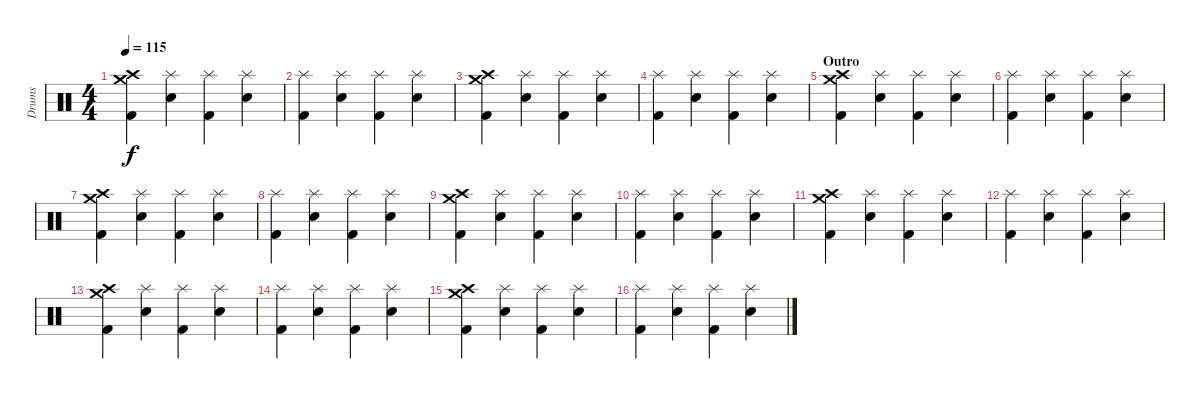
\track ("Drums" "Drums") {instrument percussion}
\staff {score}
\articulation defaults
\ts (4 4)
\tempo 115
\clef neutral
\ks c
("Crash high (hit)" "Crash medium (hit)" "Kick (hit) 2").4{dy f} ("Splash (hit)" "Snare (hit) 2").4 ("Splash (hit)" "Kick (hit) 2").4 ("Splash (hit)" "Snare (hit) 2").4 |
("Splash (hit)" "Kick (hit) 2").4 ("Splash (hit)" "Snare (hit) 2").4 ("Splash (hit)" "Kick (hit) 2").4 ("Splash (hit)" "Snare (hit) 2").4 |
("Crash high (hit)" "Crash medium (hit)" "Kick (hit) 2").4 ("Splash (hit)" "Snare (hit) 2").4 ("Splash (hit)" "Kick (hit) 2").4 ("Splash (hit)" "Snare (hit) 2").4 |
("Splash (hit)" "Kick (hit) 2").4 ("Splash (hit)" "Snare (hit) 2").4 ("Splash (hit)" "Kick (hit) 2").4 ("Splash (hit)" "Snare (hit) 2").4 |
\section ("" "Outro")
("Crash high (hit)" "Crash medium (hit)" "Kick (hit) 2").4 ("Splash (hit)" "Snare (hit) 2").4 ("Splash (hit)" "Kick (hit) 2").4 ("Splash (hit)" "Snare (hit) 2").4 |
("Splash (hit)" "Kick (hit) 2").4 ("Splash (hit)" "Snare (hit) 2").4 ("Splash (hit)" "Kick (hit) 2").4 ("Splash (hit)" "Snare (hit) 2").4 |
("Crash high (hit)" "Crash medium (hit)" "Kick (hit) 2").4 ("Splash (hit)" "Snare (hit) 2").4 ("Splash (hit)" "Kick (hit) 2").4 ("Splash (hit)" "Snare (hit) 2").4 |
("Splash (hit)" "Kick (hit) 2").4 ("Splash (hit)" "Snare (hit) 2").4 ("Splash (hit)" "Kick (hit) 2").4 ("Splash (hit)" "Snare (hit) 2").4 |
("Crash high (hit)" "Crash medium (hit)" "Kick (hit) 2").4 ("Splash (hit)" "Snare (hit) 2").4 ("Splash (hit)" "Kick (hit) 2").4 ("Splash (hit)" "Snare (hit) 2").4 |
("Splash (hit)" "Kick (hit) 2").4 ("Splash (hit)" "Snare (hit) 2").4 ("Splash (hit)" "Kick (hit) 2").4 ("Splash (hit)" "Snare (hit) 2").4 |
("Crash high (hit)" "Crash medium (hit)" "Kick (hit) 2").4 ("Splash (hit)" "Snare (hit) 2").4 ("Splash (hit)" "Kick (hit) 2").4 ("Splash (hit)" "Snare (hit) 2").4 |
("Splash (hit)" "Kick (hit) 2").4 ("Splash (hit)" "Snare (hit) 2").4 ("Splash (hit)" "Kick (hit) 2").4 ("Splash (hit)" "Snare (hit) 2").4 |
("Crash high (hit)" "Crash medium (hit)" "Kick (hit) 2").4 ("Splash (hit)" "Snare (hit) 2").4 ("Splash (hit)" "Kick (hit) 2").4 ("Splash (hit)" "Snare (hit) 2").4 |
("Splash (hit)" "Kick (hit) 2").4 ("Splash (hit)" "Snare (hit) 2").4 ("Splash (hit)" "Kick (hit) 2").4 ("Splash (hit)" "Snare (hit) 2").4 |
("Crash high (hit)" "Crash medium (hit)" "Kick (hit) 2").4 ("Splash (hit)" "Snare (hit) 2").4 ("Splash (hit)" "Kick (hit) 2").4 ("Splash (hit)" "Snare (hit) 2").4 |
("Splash (hit)" "Kick (hit) 2").4 ("Splash (hit)" "Snare (hit) 2").4 ("Splash (hit)" "Kick (hit) 2").4 ("Splash (hit)" "Snare (hit) 2").4
